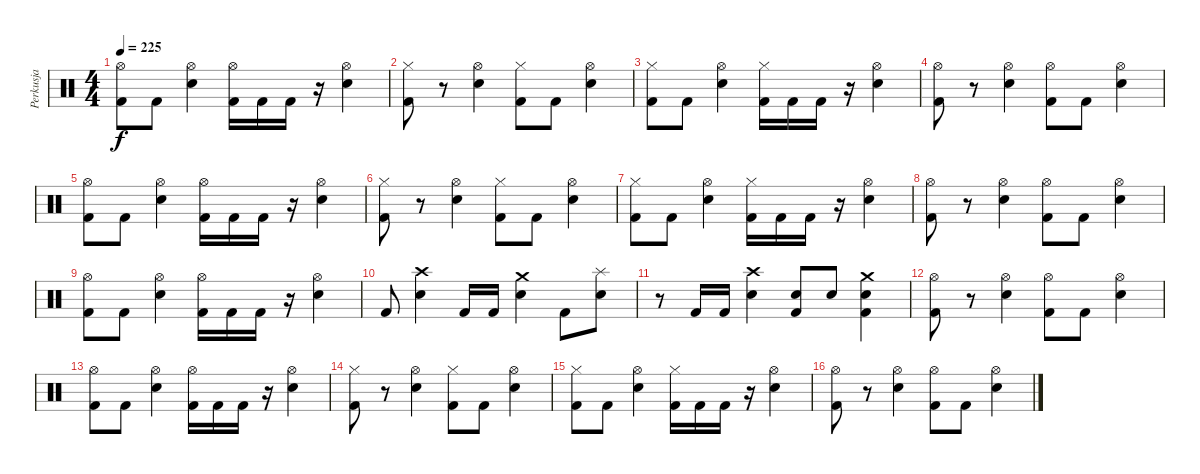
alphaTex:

\track ("Perkusja" "Perkusja") {instrument percussion}
\staff {score}
\articulation defaults
\ts (4 4)
\tempo 225
\clef neutral
\ks c
("Hi-Hat (open)" "Kick (hit) 2").8{dy f} "Kick (hit) 2".8 ("Hi-Hat (open)" "Snare (hit) 2").4 ("Hi-Hat (open)" "Kick (hit) 2").16 "Kick (hit) 2".16 "Kick (hit) 2".16 r.16 ("Hi-Hat (open)" "Snare (hit) 2").4 |
("Hi-Hat (closed)" "Kick (hit) 2").8 r.8 ("Hi-Hat (open)" "Snare (hit) 2").4 ("Hi-Hat (closed)" "Kick (hit) 2").8 "Kick (hit) 2".8 ("Hi-Hat (open)" "Snare (hit) 2").4 |
("Hi-Hat (closed)" "Kick (hit) 2").8 "Kick (hit) 2".8 ("Hi-Hat (open)" "Snare (hit) 2").4 ("Hi-Hat (closed)" "Kick (hit) 2").16 "Kick (hit) 2".16 "Kick (hit) 2".16 r.16 ("Hi-Hat (open)" "Snare (hit) 2").4 |
("Hi-Hat (open)" "Kick (hit) 2").8 r.8 ("Hi-Hat (open)" "Snare (hit) 2").4 ("Hi-Hat (open)" "Kick (hit) 2").8 "Kick (hit) 2".8 ("Hi-Hat (open)" "Snare (hit) 2").4 |
("Hi-Hat (open)" "Kick (hit) 2").8 "Kick (hit) 2".8 ("Hi-Hat (open)" "Snare (hit) 2").4 ("Hi-Hat (open)" "Kick (hit) 2").16 "Kick (hit) 2".16 "Kick (hit) 2".16 r.16 ("Hi-Hat (open)" "Snare (hit) 2").4 |
("Hi-Hat (closed)" "Kick (hit) 2").8 r.8 ("Hi-Hat (open)" "Snare (hit) 2").4 ("Hi-Hat (closed)" "Kick (hit) 2").8 "Kick (hit) 2".8 ("Hi-Hat (open)" "Snare (hit) 2").4 |
("Hi-Hat (closed)" "Kick (hit) 2").8 "Kick (hit) 2".8 ("Hi-Hat (open)" "Snare (hit) 2").4 ("Hi-Hat (closed)" "Kick (hit) 2").16 "Kick (hit) 2".16 "Kick (hit) 2".16 r.16 ("Hi-Hat (open)" "Snare (hit) 2").4 |
("Hi-Hat (open)" "Kick (hit) 2").8 r.8 ("Hi-Hat (open)" "Snare (hit) 2").4 ("Hi-Hat (open)" "Kick (hit) 2").8 "Kick (hit) 2".8 ("Hi-Hat (open)" "Snare (hit) 2").4 |
("Hi-Hat (open)" "Kick (hit) 2").8 "Kick (hit) 2".8 ("Hi-Hat (open)" "Snare (hit) 2").4 ("Hi-Hat (open)" "Kick (hit) 2").16 "Kick (hit) 2".16 "Kick (hit) 2".16 r.16 ("Hi-Hat (open)" "Snare (hit) 2").4 |
"Kick (hit) 2".8 ("Crash high (hit)" "Snare (hit) 2").4 "Kick (hit) 2".16 "Kick (hit) 2".16 ("Crash medium (hit)" "Snare (hit) 2").4 "Kick (hit) 2".8 ("Splash (hit)" "Snare (hit) 2").8 |
r.8 "Kick (hit) 2".16 "Kick (hit) 2".16 ("Crash high (hit)" "Snare (hit) 2").4 ("Snare (hit) 2" "Kick (hit) 2").8 "Snare (hit) 2".8 ("Crash medium (hit)" "Snare (hit) 2" "Kick (hit) 2").4 |
("Hi-Hat (open)" "Kick (hit) 2").8 r.8 ("Hi-Hat (open)" "Snare (hit) 2").4 ("Hi-Hat (open)" "Kick (hit) 2").8 "Kick (hit) 2".8 ("Hi-Hat (open)" "Snare (hit) 2").4 |
("Hi-Hat (open)" "Kick (hit) 2").8 "Kick (hit) 2".8 ("Hi-Hat (open)" "Snare (hit) 2").4 ("Hi-Hat (open)" "Kick (hit) 2").16 "Kick (hit) 2".16 "Kick (hit) 2".16 r.16 ("Hi-Hat (open)" "Snare (hit) 2").4 |
("Hi-Hat (closed)" "Kick (hit) 2").8 r.8 ("Hi-Hat (open)" "Snare (hit) 2").4 ("Hi-Hat (closed)" "Kick (hit) 2").8 "Kick (hit) 2".8 ("Hi-Hat (open)" "Snare (hit) 2").4 |
("Hi-Hat (closed)" "Kick (hit) 2").8 "Kick (hit) 2".8 ("Hi-Hat (open)" "Snare (hit) 2").4 ("Hi-Hat (closed)" "Kick (hit) 2").16 "Kick (hit) 2".16 "Kick (hit) 2".16 r.16 ("Hi-Hat (open)" "Snare (hit) 2").4 |
("Hi-Hat (open)" "Kick (hit) 2").8 r.8 ("Hi-Hat (open)" "Snare (hit) 2").4 ("Hi-Hat (open)" "Kick (hit) 2").8 "Kick (hit) 2".8 ("Hi-Hat (open)" "Snare (hit) 2").4
